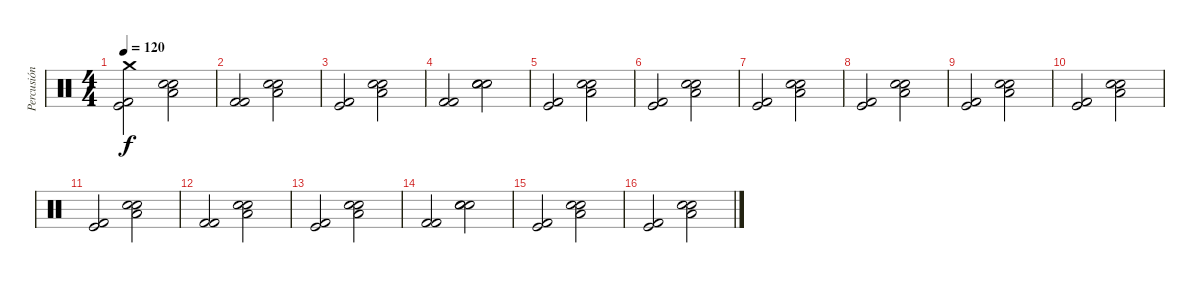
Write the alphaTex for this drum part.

\track ("Percusión" "Percusión") {instrument percussion}
\staff {score}
\articulation defaults
\ts (4 4)
\tempo 120
\clef neutral
\ks c
("Crash medium (hit)" "Kick (hit) 2" "Kick (hit)").2{dy f} ("Electric Snare (hit)" "Snare (hit) 2" "Low Floor Tom (hit)").2 |
("Kick (hit) 2" "Kick (hit) 2").2 ("Electric Snare (hit)" "Snare (hit) 2" "Low Floor Tom (hit)").2 |
("Kick (hit) 2" "Kick (hit)").2 ("Snare (hit) 2" "Electric Snare (hit)" "Low Floor Tom (hit)").2 |
("Kick (hit) 2" "Kick (hit) 2").2 ("Electric Snare (hit)" "Electric Snare (hit)" "Snare (hit) 2").2 |
("Kick (hit) 2" "Kick (hit)").2 ("Electric Snare (hit)" "Snare (hit) 2" "Low Floor Tom (hit)").2 |
("Kick (hit) 2" "Kick (hit)").2 ("Electric Snare (hit)" "Snare (hit) 2" "Low Floor Tom (hit)").2 |
("Kick (hit) 2" "Kick (hit)").2 ("Electric Snare (hit)" "Snare (hit) 2" "Low Floor Tom (hit)").2 |
("Kick (hit) 2" "Kick (hit)").2 ("Electric Snare (hit)" "Snare (hit) 2" "Low Floor Tom (hit)").2 |
("Kick (hit) 2" "Kick (hit)").2 ("Electric Snare (hit)" "Snare (hit) 2" "Low Floor Tom (hit)").2 |
("Kick (hit) 2" "Kick (hit)").2 ("Electric Snare (hit)" "Snare (hit) 2" "Low Floor Tom (hit)").2 |
("Kick (hit) 2" "Kick (hit)").2 ("Electric Snare (hit)" "Snare (hit) 2" "Low Floor Tom (hit)").2 |
("Kick (hit) 2" "Kick (hit) 2").2 ("Electric Snare (hit)" "Snare (hit) 2" "Low Floor Tom (hit)").2 |
("Kick (hit) 2" "Kick (hit)").2 ("Snare (hit) 2" "Electric Snare (hit)" "Low Floor Tom (hit)").2 |
("Kick (hit) 2" "Kick (hit) 2").2 ("Electric Snare (hit)" "Electric Snare (hit)" "Snare (hit) 2").2 |
("Kick (hit) 2" "Kick (hit)").2 ("Electric Snare (hit)" "Snare (hit) 2" "Low Floor Tom (hit)").2 |
("Kick (hit) 2" "Kick (hit)").2 ("Electric Snare (hit)" "Snare (hit) 2" "Low Floor Tom (hit)").2
